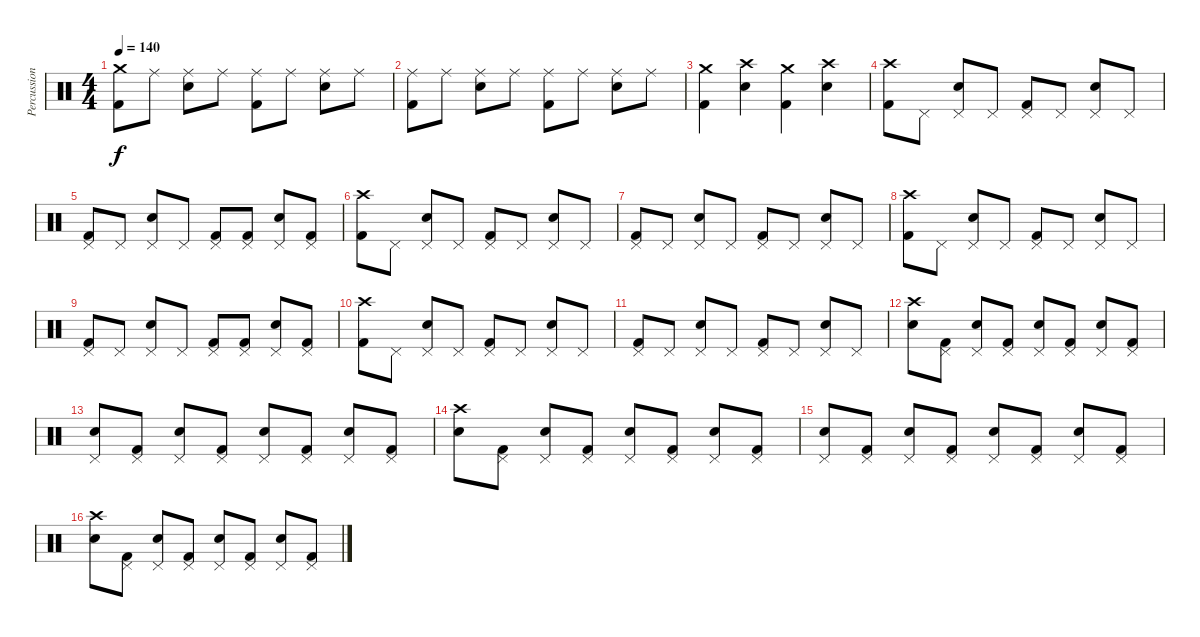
\track ("Percussion" "Percussion") {instrument percussion}
\staff {score}
\articulation defaults
\ts (4 4)
\tempo 140
\clef neutral
\ks c
("Crash medium (hit)" "Kick (hit) 2").8{dy f} "Ride (middle)".8 ("Ride (middle)" "Snare (hit) 2").8 "Ride (middle)".8 ("Ride (middle)" "Kick (hit) 2").8 "Ride (middle)".8 ("Ride (middle)" "Snare (hit) 2").8 "Ride (middle)".8 |
("Ride (middle)" "Kick (hit) 2").8 "Ride (middle)".8 ("Ride (middle)" "Snare (hit) 2").8 "Ride (middle)".8 ("Ride (middle)" "Kick (hit) 2").8 "Ride (middle)".8 ("Ride (middle)" "Snare (hit) 2").8 "Ride (middle)".8 |
("Crash medium (hit)" "Kick (hit) 2").4 ("Crash high (hit)" "Snare (hit) 2").4 ("Crash medium (hit)" "Kick (hit) 2").4 ("Crash high (hit)" "Snare (hit) 2").4 |
("Crash high (hit)" "Kick (hit) 2").8 "Pedal Hi-Hat (hit)".8 ("Pedal Hi-Hat (hit)" "Snare (hit) 2").8 "Pedal Hi-Hat (hit)".8 ("Pedal Hi-Hat (hit)" "Kick (hit) 2").8 "Pedal Hi-Hat (hit)".8 ("Pedal Hi-Hat (hit)" "Snare (hit) 2").8 "Pedal Hi-Hat (hit)".8 |
("Pedal Hi-Hat (hit)" "Kick (hit) 2").8 "Pedal Hi-Hat (hit)".8 ("Pedal Hi-Hat (hit)" "Snare (hit) 2").8 "Pedal Hi-Hat (hit)".8 ("Pedal Hi-Hat (hit)" "Kick (hit) 2").8 ("Pedal Hi-Hat (hit)" "Kick (hit) 2").8 ("Pedal Hi-Hat (hit)" "Snare (hit) 2").8 ("Pedal Hi-Hat (hit)" "Kick (hit) 2").8 |
("Crash high (hit)" "Kick (hit) 2").8 "Pedal Hi-Hat (hit)".8 ("Pedal Hi-Hat (hit)" "Snare (hit) 2").8 "Pedal Hi-Hat (hit)".8 ("Pedal Hi-Hat (hit)" "Kick (hit) 2").8 "Pedal Hi-Hat (hit)".8 ("Pedal Hi-Hat (hit)" "Snare (hit) 2").8 "Pedal Hi-Hat (hit)".8 |
("Pedal Hi-Hat (hit)" "Kick (hit) 2").8 "Pedal Hi-Hat (hit)".8 ("Pedal Hi-Hat (hit)" "Snare (hit) 2").8 "Pedal Hi-Hat (hit)".8 ("Pedal Hi-Hat (hit)" "Kick (hit) 2").8 "Pedal Hi-Hat (hit)".8 ("Pedal Hi-Hat (hit)" "Snare (hit) 2").8 "Pedal Hi-Hat (hit)".8 |
("Crash high (hit)" "Kick (hit) 2").8 "Pedal Hi-Hat (hit)".8 ("Pedal Hi-Hat (hit)" "Snare (hit) 2").8 "Pedal Hi-Hat (hit)".8 ("Pedal Hi-Hat (hit)" "Kick (hit) 2").8 "Pedal Hi-Hat (hit)".8 ("Pedal Hi-Hat (hit)" "Snare (hit) 2").8 "Pedal Hi-Hat (hit)".8 |
("Pedal Hi-Hat (hit)" "Kick (hit) 2").8 "Pedal Hi-Hat (hit)".8 ("Pedal Hi-Hat (hit)" "Snare (hit) 2").8 "Pedal Hi-Hat (hit)".8 ("Pedal Hi-Hat (hit)" "Kick (hit) 2").8 ("Pedal Hi-Hat (hit)" "Kick (hit) 2").8 ("Pedal Hi-Hat (hit)" "Snare (hit) 2").8 ("Pedal Hi-Hat (hit)" "Kick (hit) 2").8 |
("Crash high (hit)" "Kick (hit) 2").8 "Pedal Hi-Hat (hit)".8 ("Pedal Hi-Hat (hit)" "Snare (hit) 2").8 "Pedal Hi-Hat (hit)".8 ("Pedal Hi-Hat (hit)" "Kick (hit) 2").8 "Pedal Hi-Hat (hit)".8 ("Pedal Hi-Hat (hit)" "Snare (hit) 2").8 "Pedal Hi-Hat (hit)".8 |
("Pedal Hi-Hat (hit)" "Kick (hit) 2").8 "Pedal Hi-Hat (hit)".8 ("Pedal Hi-Hat (hit)" "Snare (hit) 2").8 "Pedal Hi-Hat (hit)".8 ("Pedal Hi-Hat (hit)" "Kick (hit) 2").8 "Pedal Hi-Hat (hit)".8 ("Pedal Hi-Hat (hit)" "Snare (hit) 2").8 "Pedal Hi-Hat (hit)".8 |
("Crash high (hit)" "Snare (hit) 2").8 ("Pedal Hi-Hat (hit)" "Kick (hit) 2").8 ("Pedal Hi-Hat (hit)" "Snare (hit) 2").8 ("Pedal Hi-Hat (hit)" "Kick (hit) 2").8 ("Pedal Hi-Hat (hit)" "Snare (hit) 2").8 ("Pedal Hi-Hat (hit)" "Kick (hit) 2").8 ("Pedal Hi-Hat (hit)" "Snare (hit) 2").8 ("Pedal Hi-Hat (hit)" "Kick (hit) 2").8 |
("Pedal Hi-Hat (hit)" "Snare (hit) 2").8 ("Pedal Hi-Hat (hit)" "Kick (hit) 2").8 ("Pedal Hi-Hat (hit)" "Snare (hit) 2").8 ("Pedal Hi-Hat (hit)" "Kick (hit) 2").8 ("Pedal Hi-Hat (hit)" "Snare (hit) 2").8 ("Pedal Hi-Hat (hit)" "Kick (hit) 2").8 ("Pedal Hi-Hat (hit)" "Snare (hit) 2").8 ("Pedal Hi-Hat (hit)" "Kick (hit) 2").8 |
("Crash high (hit)" "Snare (hit) 2").8 ("Pedal Hi-Hat (hit)" "Kick (hit) 2").8 ("Pedal Hi-Hat (hit)" "Snare (hit) 2").8 ("Pedal Hi-Hat (hit)" "Kick (hit) 2").8 ("Pedal Hi-Hat (hit)" "Snare (hit) 2").8 ("Pedal Hi-Hat (hit)" "Kick (hit) 2").8 ("Pedal Hi-Hat (hit)" "Snare (hit) 2").8 ("Pedal Hi-Hat (hit)" "Kick (hit) 2").8 |
("Pedal Hi-Hat (hit)" "Snare (hit) 2").8 ("Pedal Hi-Hat (hit)" "Kick (hit) 2").8 ("Pedal Hi-Hat (hit)" "Snare (hit) 2").8 ("Pedal Hi-Hat (hit)" "Kick (hit) 2").8 ("Pedal Hi-Hat (hit)" "Snare (hit) 2").8 ("Pedal Hi-Hat (hit)" "Kick (hit) 2").8 ("Pedal Hi-Hat (hit)" "Snare (hit) 2").8 ("Pedal Hi-Hat (hit)" "Kick (hit) 2").8 |
("Crash high (hit)" "Snare (hit) 2").8 ("Pedal Hi-Hat (hit)" "Kick (hit) 2").8 ("Pedal Hi-Hat (hit)" "Snare (hit) 2").8 ("Pedal Hi-Hat (hit)" "Kick (hit) 2").8 ("Pedal Hi-Hat (hit)" "Snare (hit) 2").8 ("Pedal Hi-Hat (hit)" "Kick (hit) 2").8 ("Pedal Hi-Hat (hit)" "Snare (hit) 2").8 ("Pedal Hi-Hat (hit)" "Kick (hit) 2").8
